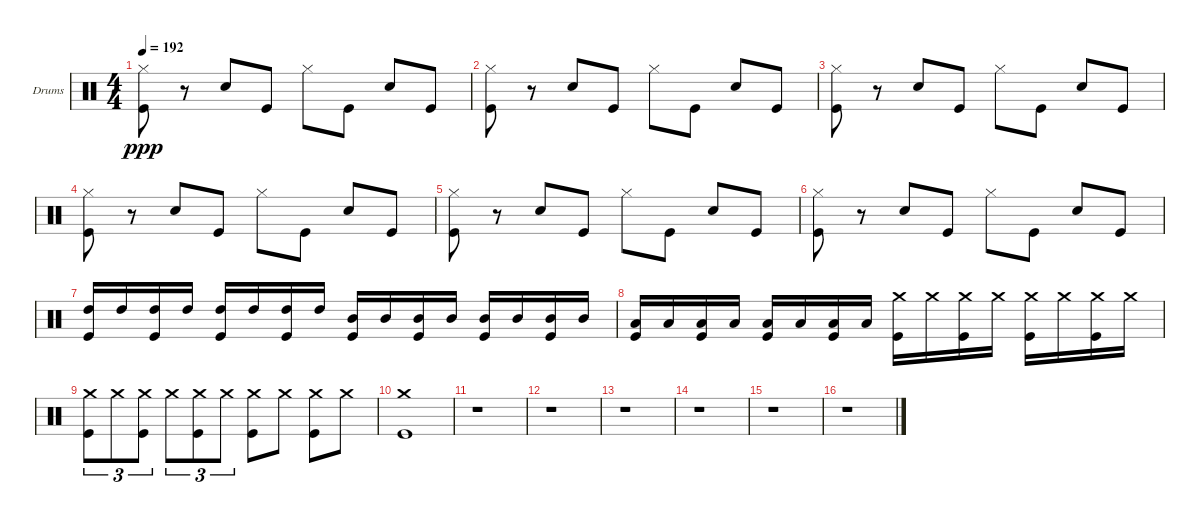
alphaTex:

\bracketExtendMode groupsimilarinstruments
\firstSystemTrackNameOrientation horizontal
\otherSystemsTrackNameOrientation horizontal
\track ("Drumkit" "Drums") {instrument percussion}
\staff {score}
\articulation defaults
\ts (4 4)
\tempo 192
\clef neutral
\ks c
("Kick (hit)" "Hi-Hat (closed)").8{dy ppp} r.8 "Snare (hit) 2".8 "Kick (hit)".8 "Hi-Hat (closed)".8 "Kick (hit)".8 "Snare (hit) 2".8 "Kick (hit)".8 |
("Kick (hit)" "Hi-Hat (closed)").8 r.8 "Snare (hit) 2".8 "Kick (hit)".8 "Hi-Hat (closed)".8 "Kick (hit)".8 "Snare (hit) 2".8 "Kick (hit)".8 |
("Kick (hit)" "Hi-Hat (closed)").8 r.8 "Snare (hit) 2".8 "Kick (hit)".8 "Hi-Hat (closed)".8 "Kick (hit)".8 "Snare (hit) 2".8 "Kick (hit)".8 |
("Kick (hit)" "Hi-Hat (closed)").8 r.8 "Snare (hit) 2".8 "Kick (hit)".8 "Hi-Hat (closed)".8 "Kick (hit)".8 "Snare (hit) 2".8 "Kick (hit)".8 |
("Kick (hit)" "Hi-Hat (closed)").8 r.8 "Snare (hit) 2".8 "Kick (hit)".8 "Hi-Hat (closed)".8 "Kick (hit)".8 "Snare (hit) 2".8 "Kick (hit)".8 |
("Kick (hit)" "Hi-Hat (closed)").8 r.8 "Snare (hit) 2".8 "Kick (hit)".8 "Hi-Hat (closed)".8 "Kick (hit)".8 "Snare (hit) 2".8 "Kick (hit)".8 |
("Kick (hit)" "High Tom (hit)").16 "High Tom (hit)".16 ("Kick (hit)" "High Tom (hit)").16 "High Tom (hit)".16 ("Kick (hit)" "High Tom (hit)").16 "High Tom (hit)".16 ("Kick (hit)" "High Tom (hit)").16 "High Tom (hit)".16 ("Kick (hit)" "Mid Tom (hit)").16 "Mid Tom (hit)".16 ("Kick (hit)" "Mid Tom (hit)").16 "Mid Tom (hit)".16 ("Kick (hit)" "Mid Tom (hit)").16 "Mid Tom (hit)".16 ("Kick (hit)" "Mid Tom (hit)").16 "Mid Tom (hit)".16 |
("Low Tom (hit)" "Kick (hit)").16 "Low Tom (hit)".16 ("Low Tom (hit)" "Kick (hit)").16 "Low Tom (hit)".16 ("Low Tom (hit)" "Kick (hit)").16 "Low Tom (hit)".16 ("Low Tom (hit)" "Kick (hit)").16 "Low Tom (hit)".16 ("Crash medium (hit)" "Kick (hit)").16 "Crash medium (hit)".16 ("Crash medium (hit)" "Kick (hit)").16 "Crash medium (hit)".16 ("Crash medium (hit)" "Kick (hit)").16 "Crash medium (hit)".16 ("Crash medium (hit)" "Kick (hit)").16 "Crash medium (hit)".16 |
("Crash medium (hit)" "Kick (hit)").8{tu (3 2)} "Crash medium (hit)".8{tu (3 2)} ("Crash medium (hit)" "Kick (hit)").8{tu (3 2)} "Crash medium (hit)".8{tu (3 2)} ("Crash medium (hit)" "Kick (hit)").8{tu (3 2)} "Crash medium (hit)".8{tu (3 2)} ("Crash medium (hit)" "Kick (hit)").8 "Crash medium (hit)".8 ("Crash medium (hit)" "Kick (hit)").8 "Crash medium (hit)".8 |
("Crash medium (hit)" "Kick (hit)").1 |
r.1 |
r.1 |
r.1 |
r.1 |
r.1 |
r.1
